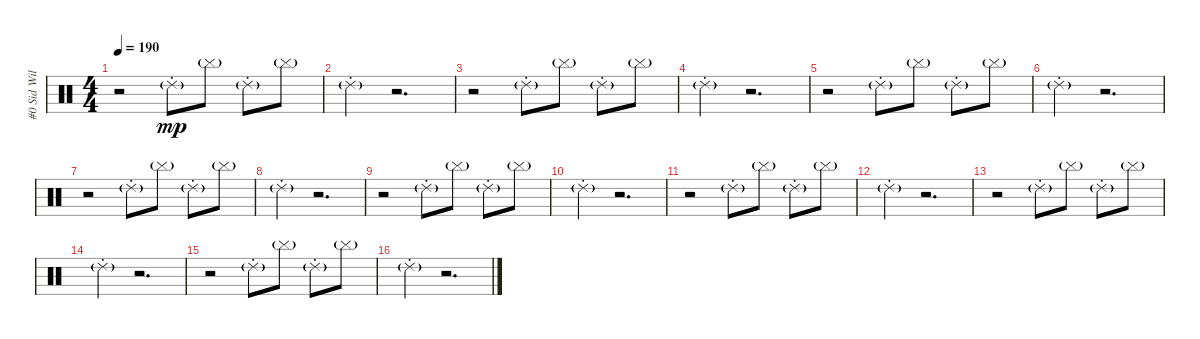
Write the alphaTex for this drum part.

\track ("#0 Sid Wilson" "#0 Sid Wil") {instrument percussion}
\staff {score}
\articulation defaults
\ts (4 4)
\tempo 190
\clef neutral
\ks c
r.2{dy mp} "Ride (choke) 2"{g}.8 "Cymbal (hit)"{g}.8 "Ride (choke) 2"{g}.8 "Cymbal (hit)"{g}.8 |
"Ride (choke) 2"{g}.4 r.2{d} |
r.2 "Ride (choke) 2"{g}.8 "Cymbal (hit)"{g}.8 "Ride (choke) 2"{g}.8 "Cymbal (hit)"{g}.8 |
"Ride (choke) 2"{g}.4 r.2{d} |
r.2 "Ride (choke) 2"{g}.8 "Cymbal (hit)"{g}.8 "Ride (choke) 2"{g}.8 "Cymbal (hit)"{g}.8 |
"Ride (choke) 2"{g}.4 r.2{d} |
r.2 "Ride (choke) 2"{g}.8 "Cymbal (hit)"{g}.8 "Ride (choke) 2"{g}.8 "Cymbal (hit)"{g}.8 |
"Ride (choke) 2"{g}.4 r.2{d} |
r.2 "Ride (choke) 2"{g}.8 "Cymbal (hit)"{g}.8 "Ride (choke) 2"{g}.8 "Cymbal (hit)"{g}.8 |
"Ride (choke) 2"{g}.4 r.2{d} |
r.2 "Ride (choke) 2"{g}.8 "Cymbal (hit)"{g}.8 "Ride (choke) 2"{g}.8 "Cymbal (hit)"{g}.8 |
"Ride (choke) 2"{g}.4 r.2{d} |
r.2 "Ride (choke) 2"{g}.8 "Cymbal (hit)"{g}.8 "Ride (choke) 2"{g}.8 "Cymbal (hit)"{g}.8 |
"Ride (choke) 2"{g}.4 r.2{d} |
r.2 "Ride (choke) 2"{g}.8 "Cymbal (hit)"{g}.8 "Ride (choke) 2"{g}.8 "Cymbal (hit)"{g}.8 |
"Ride (choke) 2"{g}.4 r.2{d}
